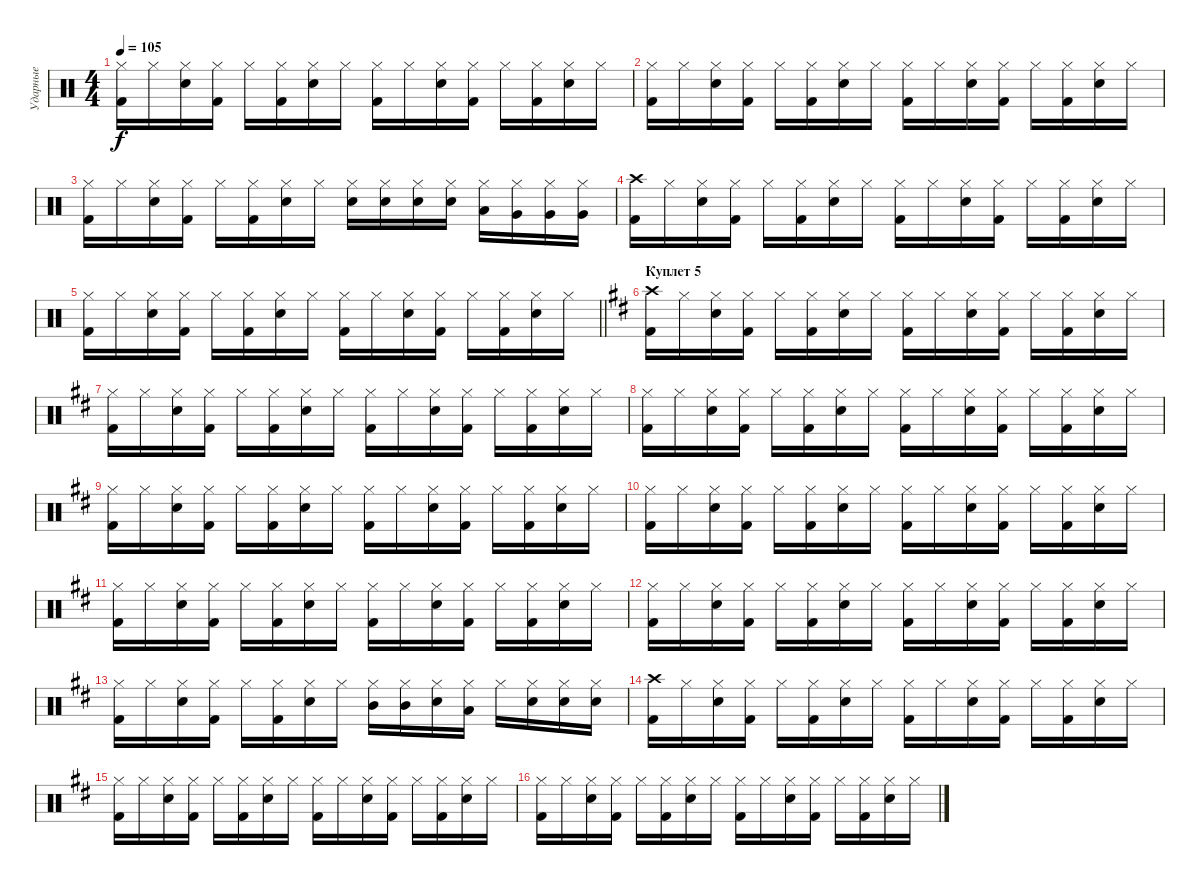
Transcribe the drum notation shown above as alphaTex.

\track ("Ударные" "Ударные") {instrument percussion}
\staff {score}
\articulation defaults
\ts (4 4)
\tempo 105
\clef neutral
\ks aminor
("Hi-Hat (closed)" "Kick (hit) 2").16{dy f} "Hi-Hat (closed)".16 ("Hi-Hat (closed)" "Snare (hit) 2").16 ("Hi-Hat (closed)" "Kick (hit) 2").16 "Hi-Hat (closed)".16 ("Hi-Hat (closed)" "Kick (hit) 2").16 ("Hi-Hat (closed)" "Snare (hit) 2").16 "Hi-Hat (closed)".16 ("Hi-Hat (closed)" "Kick (hit) 2").16 "Hi-Hat (closed)".16 ("Hi-Hat (closed)" "Snare (hit) 2").16 ("Hi-Hat (closed)" "Kick (hit) 2").16 "Hi-Hat (closed)".16 ("Hi-Hat (closed)" "Kick (hit) 2").16 ("Hi-Hat (closed)" "Snare (hit) 2").16 "Hi-Hat (closed)".16 |
("Hi-Hat (closed)" "Kick (hit) 2").16 "Hi-Hat (closed)".16 ("Hi-Hat (closed)" "Snare (hit) 2").16 ("Hi-Hat (closed)" "Kick (hit) 2").16 "Hi-Hat (closed)".16 ("Hi-Hat (closed)" "Kick (hit) 2").16 ("Hi-Hat (closed)" "Snare (hit) 2").16 "Hi-Hat (closed)".16 ("Hi-Hat (closed)" "Kick (hit) 2").16 "Hi-Hat (closed)".16 ("Hi-Hat (closed)" "Snare (hit) 2").16 ("Hi-Hat (closed)" "Kick (hit) 2").16 "Hi-Hat (closed)".16 ("Hi-Hat (closed)" "Kick (hit) 2").16 ("Hi-Hat (closed)" "Snare (hit) 2").16 "Hi-Hat (closed)".16 |
("Hi-Hat (closed)" "Kick (hit) 2").16 "Hi-Hat (closed)".16 ("Hi-Hat (closed)" "Snare (hit) 2").16 ("Hi-Hat (closed)" "Kick (hit) 2").16 "Hi-Hat (closed)".16 ("Hi-Hat (closed)" "Kick (hit) 2").16 ("Hi-Hat (closed)" "Snare (hit) 2").16 "Hi-Hat (closed)".16 ("Hi-Hat (closed)" "Snare (hit) 2").16 ("Hi-Hat (closed)" "Snare (hit) 2").16 ("Hi-Hat (closed)" "Snare (hit) 2").16 ("Hi-Hat (closed)" "Snare (hit) 2").16 ("Hi-Hat (closed)" "Low Tom (hit)").16 ("Hi-Hat (closed)" "Very Low Tom (hit)").16 ("Hi-Hat (closed)" "Very Low Tom (hit)").16 ("Hi-Hat (closed)" "Very Low Tom (hit)").16 |
("Crash high (hit)" "Kick (hit) 2").16 "Hi-Hat (closed)".16 ("Hi-Hat (closed)" "Snare (hit) 2").16 ("Hi-Hat (closed)" "Kick (hit) 2").16 "Hi-Hat (closed)".16 ("Hi-Hat (closed)" "Kick (hit) 2").16 ("Hi-Hat (closed)" "Snare (hit) 2").16 "Hi-Hat (closed)".16 ("Hi-Hat (closed)" "Kick (hit) 2").16 "Hi-Hat (closed)".16 ("Hi-Hat (closed)" "Snare (hit) 2").16 ("Hi-Hat (closed)" "Kick (hit) 2").16 "Hi-Hat (closed)".16 ("Hi-Hat (closed)" "Kick (hit) 2").16 ("Hi-Hat (closed)" "Snare (hit) 2").16 "Hi-Hat (closed)".16 |
\barLineRight lightlight
("Hi-Hat (closed)" "Kick (hit) 2").16 "Hi-Hat (closed)".16 ("Hi-Hat (closed)" "Snare (hit) 2").16 ("Hi-Hat (closed)" "Kick (hit) 2").16 "Hi-Hat (closed)".16 ("Hi-Hat (closed)" "Kick (hit) 2").16 ("Hi-Hat (closed)" "Snare (hit) 2").16 "Hi-Hat (closed)".16 ("Hi-Hat (closed)" "Kick (hit) 2").16 "Hi-Hat (closed)".16 ("Hi-Hat (closed)" "Snare (hit) 2").16 ("Hi-Hat (closed)" "Kick (hit) 2").16 "Hi-Hat (closed)".16 ("Hi-Hat (closed)" "Kick (hit) 2").16 ("Hi-Hat (closed)" "Snare (hit) 2").16 "Hi-Hat (closed)".16 |
\section ("" "Куплет 5")
\ks bminor
("Crash high (hit)" "Kick (hit) 2").16 "Hi-Hat (closed)".16 ("Hi-Hat (closed)" "Snare (hit) 2").16 ("Hi-Hat (closed)" "Kick (hit) 2").16 "Hi-Hat (closed)".16 ("Hi-Hat (closed)" "Kick (hit) 2").16 ("Hi-Hat (closed)" "Snare (hit) 2").16 "Hi-Hat (closed)".16 ("Hi-Hat (closed)" "Kick (hit) 2").16 "Hi-Hat (closed)".16 ("Hi-Hat (closed)" "Snare (hit) 2").16 ("Hi-Hat (closed)" "Kick (hit) 2").16 "Hi-Hat (closed)".16 ("Hi-Hat (closed)" "Kick (hit) 2").16 ("Hi-Hat (closed)" "Snare (hit) 2").16 "Hi-Hat (closed)".16 |
("Hi-Hat (closed)" "Kick (hit) 2").16 "Hi-Hat (closed)".16 ("Hi-Hat (closed)" "Snare (hit) 2").16 ("Hi-Hat (closed)" "Kick (hit) 2").16 "Hi-Hat (closed)".16 ("Hi-Hat (closed)" "Kick (hit) 2").16 ("Hi-Hat (closed)" "Snare (hit) 2").16 "Hi-Hat (closed)".16 ("Hi-Hat (closed)" "Kick (hit) 2").16 "Hi-Hat (closed)".16 ("Hi-Hat (closed)" "Snare (hit) 2").16 ("Hi-Hat (closed)" "Kick (hit) 2").16 "Hi-Hat (closed)".16 ("Hi-Hat (closed)" "Kick (hit) 2").16 ("Hi-Hat (closed)" "Snare (hit) 2").16 "Hi-Hat (closed)".16 |
("Hi-Hat (closed)" "Kick (hit) 2").16 "Hi-Hat (closed)".16 ("Hi-Hat (closed)" "Snare (hit) 2").16 ("Hi-Hat (closed)" "Kick (hit) 2").16 "Hi-Hat (closed)".16 ("Hi-Hat (closed)" "Kick (hit) 2").16 ("Hi-Hat (closed)" "Snare (hit) 2").16 "Hi-Hat (closed)".16 ("Hi-Hat (closed)" "Kick (hit) 2").16 "Hi-Hat (closed)".16 ("Hi-Hat (closed)" "Snare (hit) 2").16 ("Hi-Hat (closed)" "Kick (hit) 2").16 "Hi-Hat (closed)".16 ("Hi-Hat (closed)" "Kick (hit) 2").16 ("Hi-Hat (closed)" "Snare (hit) 2").16 "Hi-Hat (closed)".16 |
("Hi-Hat (closed)" "Kick (hit) 2").16 "Hi-Hat (closed)".16 ("Hi-Hat (closed)" "Snare (hit) 2").16 ("Hi-Hat (closed)" "Kick (hit) 2").16 "Hi-Hat (closed)".16 ("Hi-Hat (closed)" "Kick (hit) 2").16 ("Hi-Hat (closed)" "Snare (hit) 2").16 "Hi-Hat (closed)".16 ("Hi-Hat (closed)" "Kick (hit) 2").16 "Hi-Hat (closed)".16 ("Hi-Hat (closed)" "Snare (hit) 2").16 ("Hi-Hat (closed)" "Kick (hit) 2").16 "Hi-Hat (closed)".16 ("Hi-Hat (closed)" "Kick (hit) 2").16 ("Hi-Hat (closed)" "Snare (hit) 2").16 "Hi-Hat (closed)".16 |
("Hi-Hat (closed)" "Kick (hit) 2").16 "Hi-Hat (closed)".16 ("Hi-Hat (closed)" "Snare (hit) 2").16 ("Hi-Hat (closed)" "Kick (hit) 2").16 "Hi-Hat (closed)".16 ("Hi-Hat (closed)" "Kick (hit) 2").16 ("Hi-Hat (closed)" "Snare (hit) 2").16 "Hi-Hat (closed)".16 ("Hi-Hat (closed)" "Kick (hit) 2").16 "Hi-Hat (closed)".16 ("Hi-Hat (closed)" "Snare (hit) 2").16 ("Hi-Hat (closed)" "Kick (hit) 2").16 "Hi-Hat (closed)".16 ("Hi-Hat (closed)" "Kick (hit) 2").16 ("Hi-Hat (closed)" "Snare (hit) 2").16 "Hi-Hat (closed)".16 |
("Hi-Hat (closed)" "Kick (hit) 2").16 "Hi-Hat (closed)".16 ("Hi-Hat (closed)" "Snare (hit) 2").16 ("Hi-Hat (closed)" "Kick (hit) 2").16 "Hi-Hat (closed)".16 ("Hi-Hat (closed)" "Kick (hit) 2").16 ("Hi-Hat (closed)" "Snare (hit) 2").16 "Hi-Hat (closed)".16 ("Hi-Hat (closed)" "Kick (hit) 2").16 "Hi-Hat (closed)".16 ("Hi-Hat (closed)" "Snare (hit) 2").16 ("Hi-Hat (closed)" "Kick (hit) 2").16 "Hi-Hat (closed)".16 ("Hi-Hat (closed)" "Kick (hit) 2").16 ("Hi-Hat (closed)" "Snare (hit) 2").16 "Hi-Hat (closed)".16 |
("Hi-Hat (closed)" "Kick (hit) 2").16 "Hi-Hat (closed)".16 ("Hi-Hat (closed)" "Snare (hit) 2").16 ("Hi-Hat (closed)" "Kick (hit) 2").16 "Hi-Hat (closed)".16 ("Hi-Hat (closed)" "Kick (hit) 2").16 ("Hi-Hat (closed)" "Snare (hit) 2").16 "Hi-Hat (closed)".16 ("Hi-Hat (closed)" "Kick (hit) 2").16 "Hi-Hat (closed)".16 ("Hi-Hat (closed)" "Snare (hit) 2").16 ("Hi-Hat (closed)" "Kick (hit) 2").16 "Hi-Hat (closed)".16 ("Hi-Hat (closed)" "Kick (hit) 2").16 ("Hi-Hat (closed)" "Snare (hit) 2").16 "Hi-Hat (closed)".16 |
("Hi-Hat (closed)" "Kick (hit) 2").16 "Hi-Hat (closed)".16 ("Hi-Hat (closed)" "Snare (hit) 2").16 ("Hi-Hat (closed)" "Kick (hit) 2").16 "Hi-Hat (closed)".16 ("Hi-Hat (closed)" "Kick (hit) 2").16 ("Hi-Hat (closed)" "Snare (hit) 2").16 "Hi-Hat (closed)".16 ("Hi-Hat (closed)" "Mid Tom (hit)").16 ("Hi-Hat (closed)" "Mid Tom (hit)").16 ("Hi-Hat (closed)" "Snare (hit) 2").16 ("Hi-Hat (closed)" "Low Tom (hit)").16 "Hi-Hat (closed)".16 ("Hi-Hat (closed)" "Snare (hit) 2").16 ("Hi-Hat (closed)" "Snare (hit) 2").16 ("Hi-Hat (closed)" "Snare (hit) 2").16 |
("Crash high (hit)" "Kick (hit) 2").16 "Hi-Hat (closed)".16 ("Hi-Hat (closed)" "Snare (hit) 2").16 ("Hi-Hat (closed)" "Kick (hit) 2").16 "Hi-Hat (closed)".16 ("Hi-Hat (closed)" "Kick (hit) 2").16 ("Hi-Hat (closed)" "Snare (hit) 2").16 "Hi-Hat (closed)".16 ("Hi-Hat (closed)" "Kick (hit) 2").16 "Hi-Hat (closed)".16 ("Hi-Hat (closed)" "Snare (hit) 2").16 ("Hi-Hat (closed)" "Kick (hit) 2").16 "Hi-Hat (closed)".16 ("Hi-Hat (closed)" "Kick (hit) 2").16 ("Hi-Hat (closed)" "Snare (hit) 2").16 "Hi-Hat (closed)".16 |
("Hi-Hat (closed)" "Kick (hit) 2").16 "Hi-Hat (closed)".16 ("Hi-Hat (closed)" "Snare (hit) 2").16 ("Hi-Hat (closed)" "Kick (hit) 2").16 "Hi-Hat (closed)".16 ("Hi-Hat (closed)" "Kick (hit) 2").16 ("Hi-Hat (closed)" "Snare (hit) 2").16 "Hi-Hat (closed)".16 ("Hi-Hat (closed)" "Kick (hit) 2").16 "Hi-Hat (closed)".16 ("Hi-Hat (closed)" "Snare (hit) 2").16 ("Hi-Hat (closed)" "Kick (hit) 2").16 "Hi-Hat (closed)".16 ("Hi-Hat (closed)" "Kick (hit) 2").16 ("Hi-Hat (closed)" "Snare (hit) 2").16 "Hi-Hat (closed)".16 |
("Hi-Hat (closed)" "Kick (hit) 2").16 "Hi-Hat (closed)".16 ("Hi-Hat (closed)" "Snare (hit) 2").16 ("Hi-Hat (closed)" "Kick (hit) 2").16 "Hi-Hat (closed)".16 ("Hi-Hat (closed)" "Kick (hit) 2").16 ("Hi-Hat (closed)" "Snare (hit) 2").16 "Hi-Hat (closed)".16 ("Hi-Hat (closed)" "Kick (hit) 2").16 "Hi-Hat (closed)".16 ("Hi-Hat (closed)" "Snare (hit) 2").16 ("Hi-Hat (closed)" "Kick (hit) 2").16 "Hi-Hat (closed)".16 ("Hi-Hat (closed)" "Kick (hit) 2").16 ("Hi-Hat (closed)" "Snare (hit) 2").16 "Hi-Hat (closed)".16
